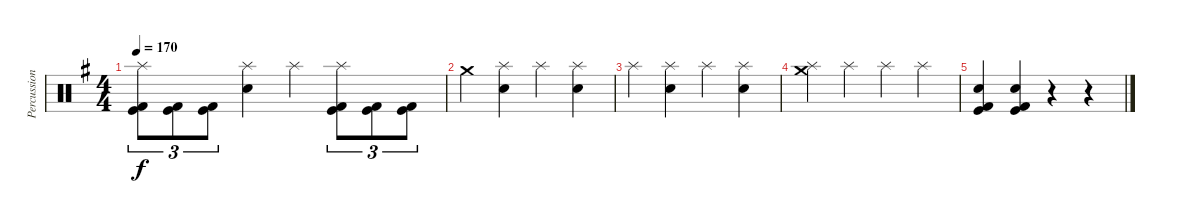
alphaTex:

\track ("Percussion" "Percussion") {instrument percussion}
\staff {score}
\articulation defaults
\ts (4 4)
\tempo 170
\clef neutral
\ks eminor
("Splash (hit)" "Kick (hit)" "Kick (hit) 2").8{tu (3 2) dy f} ("Kick (hit)" "Kick (hit) 2").8{tu (3 2)} ("Kick (hit)" "Kick (hit) 2").8{tu (3 2)} ("Splash (hit)" "Electric Snare (hit)").4 "Splash (hit)".4 ("Splash (hit)" "Kick (hit)" "Kick (hit) 2").8{tu (3 2)} ("Kick (hit)" "Kick (hit) 2").8{tu (3 2)} ("Kick (hit)" "Kick (hit) 2").8{tu (3 2)} |
"Crash medium (hit)".4 ("Splash (hit)" "Electric Snare (hit)").4 "Splash (hit)".4 ("Splash (hit)" "Electric Snare (hit)").4 |
"Splash (hit)".4 ("Splash (hit)" "Electric Snare (hit)").4 "Splash (hit)".4 ("Splash (hit)" "Electric Snare (hit)").4 |
("Crash medium (hit)" "Splash (hit)").4 "Splash (hit)".4 "Splash (hit)".4 "Splash (hit)".4 |
("Snare (hit) 2" "Kick (hit)" "Kick (hit) 2").4 ("Snare (hit) 2" "Kick (hit)" "Kick (hit) 2").4 r.4 r.4
